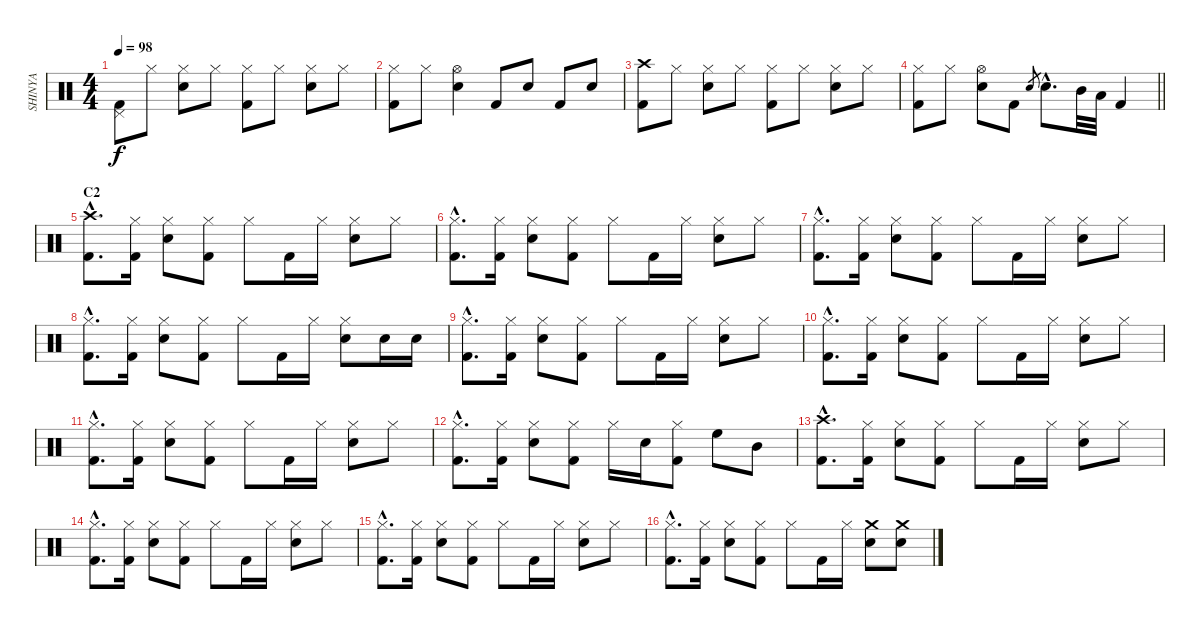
\track ("SHINYA" "SHINYA") {instrument percussion}
\staff {score}
\articulation defaults
\ts (4 4)
\tempo 98
\clef neutral
\ks c
("Pedal Hi-Hat (hit)" "Kick (hit) 2").8{dy f} "Hi-Hat (closed)".8 ("Hi-Hat (closed)" "Snare (hit) 2").8 "Hi-Hat (closed)".8 ("Hi-Hat (closed)" "Kick (hit) 2").8 "Hi-Hat (closed)".8 ("Hi-Hat (closed)" "Snare (hit) 2").8 "Hi-Hat (closed)".8 |
("Hi-Hat (closed)" "Kick (hit) 2").8 "Hi-Hat (closed)".8 ("Hi-Hat (open)" "Snare (hit) 2").4 "Kick (hit) 2".8 "Snare (hit) 2".8 "Kick (hit) 2".8 "Snare (hit) 2".8 |
("Crash high (hit)" "Kick (hit) 2").8 "Hi-Hat (closed)".8 ("Hi-Hat (closed)" "Snare (hit) 2").8 "Hi-Hat (closed)".8 ("Hi-Hat (closed)" "Kick (hit) 2").8 "Hi-Hat (closed)".8 ("Hi-Hat (closed)" "Snare (hit) 2").8 "Hi-Hat (closed)".8 |
\barLineRight lightlight
("Hi-Hat (closed)" "Kick (hit) 2").8 "Hi-Hat (closed)".8 ("Hi-Hat (open)" "Snare (hit) 2").8 "Kick (hit) 2".8 "Snare (hit) 2".8{gr} "Snare (hit) 2"{hac}.8{d} "Mid Tom (hit)".32 "Low Tom (hit)".32 "Kick (hit) 2".4 |
\section ("" "C2")
("Crash high (hit)"{hac} "Kick (hit) 2"{hac}).8{d} ("Hi-Hat (closed)" "Kick (hit) 2").16 ("Hi-Hat (closed)" "Snare (hit) 2").8 ("Hi-Hat (closed)" "Kick (hit) 2").8 "Hi-Hat (closed)".8 "Kick (hit) 2".16 "Hi-Hat (closed)".16 ("Hi-Hat (closed)" "Snare (hit) 2").8 "Hi-Hat (closed)".8 |
("Hi-Hat (closed)"{hac} "Kick (hit) 2"{hac}).8{d} ("Hi-Hat (closed)" "Kick (hit) 2").16 ("Hi-Hat (closed)" "Snare (hit) 2").8 ("Hi-Hat (closed)" "Kick (hit) 2").8 "Hi-Hat (closed)".8 "Kick (hit) 2".16 "Hi-Hat (closed)".16 ("Hi-Hat (closed)" "Snare (hit) 2").8 "Hi-Hat (closed)".8 |
("Hi-Hat (closed)"{hac} "Kick (hit) 2"{hac}).8{d} ("Hi-Hat (closed)" "Kick (hit) 2").16 ("Hi-Hat (closed)" "Snare (hit) 2").8 ("Hi-Hat (closed)" "Kick (hit) 2").8 "Hi-Hat (closed)".8 "Kick (hit) 2".16 "Hi-Hat (closed)".16 ("Hi-Hat (closed)" "Snare (hit) 2").8 "Hi-Hat (closed)".8 |
("Hi-Hat (closed)"{hac} "Kick (hit) 2"{hac}).8{d} ("Hi-Hat (closed)" "Kick (hit) 2").16 ("Hi-Hat (closed)" "Snare (hit) 2").8 ("Hi-Hat (closed)" "Kick (hit) 2").8 "Hi-Hat (closed)".8 "Kick (hit) 2".16 "Hi-Hat (closed)".16 ("Hi-Hat (closed)" "Snare (hit) 2").8 "Snare (hit) 2".16 "Snare (hit) 2".16 |
("Hi-Hat (closed)"{hac} "Kick (hit) 2"{hac}).8{d} ("Hi-Hat (closed)" "Kick (hit) 2").16 ("Hi-Hat (closed)" "Snare (hit) 2").8 ("Hi-Hat (closed)" "Kick (hit) 2").8 "Hi-Hat (closed)".8 "Kick (hit) 2".16 "Hi-Hat (closed)".16 ("Hi-Hat (closed)" "Snare (hit) 2").8 "Hi-Hat (closed)".8 |
("Hi-Hat (closed)"{hac} "Kick (hit) 2"{hac}).8{d} ("Hi-Hat (closed)" "Kick (hit) 2").16 ("Hi-Hat (closed)" "Snare (hit) 2").8 ("Hi-Hat (closed)" "Kick (hit) 2").8 "Hi-Hat (closed)".8 "Kick (hit) 2".16 "Hi-Hat (closed)".16 ("Hi-Hat (closed)" "Snare (hit) 2").8 "Hi-Hat (closed)".8 |
("Hi-Hat (closed)"{hac} "Kick (hit) 2"{hac}).8{d} ("Hi-Hat (closed)" "Kick (hit) 2").16 ("Hi-Hat (closed)" "Snare (hit) 2").8 ("Hi-Hat (closed)" "Kick (hit) 2").8 "Hi-Hat (closed)".8 "Kick (hit) 2".16 "Hi-Hat (closed)".16 ("Hi-Hat (closed)" "Snare (hit) 2").8 "Hi-Hat (closed)".8 |
("Hi-Hat (closed)"{hac} "Kick (hit) 2"{hac}).8{d} ("Hi-Hat (closed)" "Kick (hit) 2").16 ("Hi-Hat (closed)" "Snare (hit) 2").8 ("Hi-Hat (closed)" "Kick (hit) 2").8 "Hi-Hat (closed)".16 "Snare (hit) 2".16 ("Hi-Hat (closed)" "Kick (hit) 2").8 "High Floor Tom (hit)".8 "Mid Tom (hit)".8 |
("Crash high (hit)"{hac} "Kick (hit) 2"{hac}).8{d} ("Hi-Hat (closed)" "Kick (hit) 2").16 ("Hi-Hat (closed)" "Snare (hit) 2").8 ("Hi-Hat (closed)" "Kick (hit) 2").8 "Hi-Hat (closed)".8 "Kick (hit) 2".16 "Hi-Hat (closed)".16 ("Hi-Hat (closed)" "Snare (hit) 2").8 "Hi-Hat (closed)".8 |
("Hi-Hat (closed)"{hac} "Kick (hit) 2"{hac}).8{d} ("Hi-Hat (closed)" "Kick (hit) 2").16 ("Hi-Hat (closed)" "Snare (hit) 2").8 ("Hi-Hat (closed)" "Kick (hit) 2").8 "Hi-Hat (closed)".8 "Kick (hit) 2".16 "Hi-Hat (closed)".16 ("Hi-Hat (closed)" "Snare (hit) 2").8 "Hi-Hat (closed)".8 |
("Hi-Hat (closed)"{hac} "Kick (hit) 2"{hac}).8{d} ("Hi-Hat (closed)" "Kick (hit) 2").16 ("Hi-Hat (closed)" "Snare (hit) 2").8 ("Hi-Hat (closed)" "Kick (hit) 2").8 "Hi-Hat (closed)".8 "Kick (hit) 2".16 "Hi-Hat (closed)".16 ("Hi-Hat (closed)" "Snare (hit) 2").8 "Hi-Hat (closed)".8 |
("Hi-Hat (closed)"{hac} "Kick (hit) 2"{hac}).8{d} ("Hi-Hat (closed)" "Kick (hit) 2").16 ("Hi-Hat (closed)" "Snare (hit) 2").8 ("Hi-Hat (closed)" "Kick (hit) 2").8 "Hi-Hat (closed)".8 "Kick (hit) 2".16 "Hi-Hat (closed)".16 ("Crash medium (hit)" "Snare (hit) 2").8 ("Crash medium (hit)" "Snare (hit) 2").8
